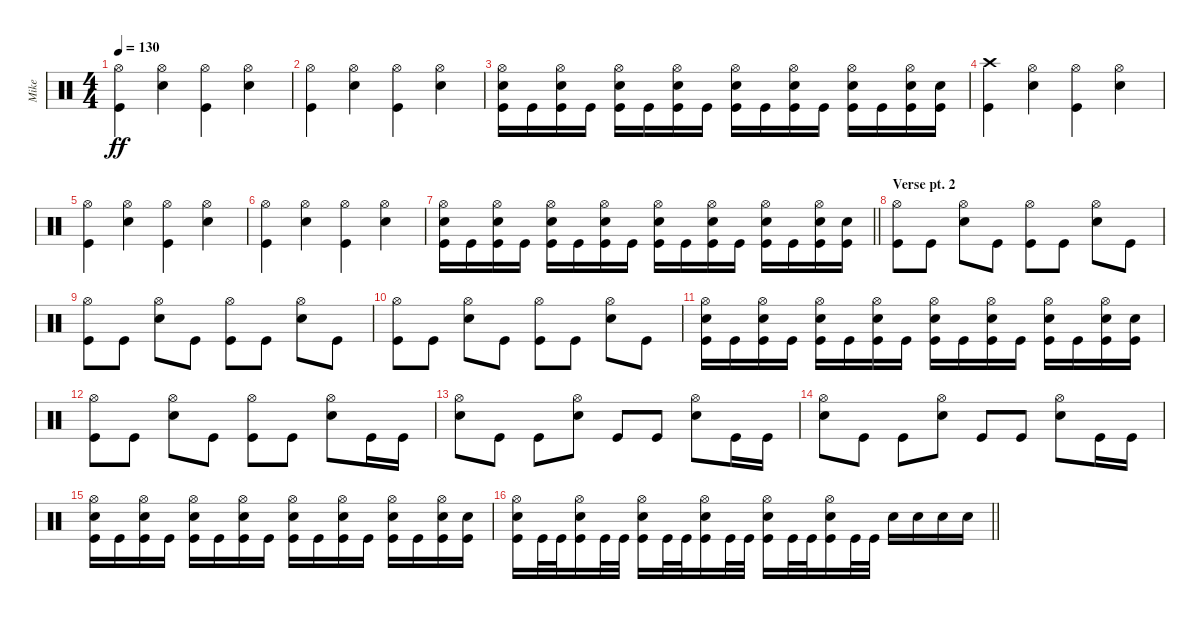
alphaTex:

\track ("Mike" "Mike") {instrument percussion}
\staff {score}
\articulation defaults
\ts (4 4)
\tempo 130
\clef neutral
\ks c
("Hi-Hat (open)" "Kick (hit)").4{dy ff} ("Snare (hit) 2" "Hi-Hat (open)").4 ("Kick (hit)" "Hi-Hat (open)").4 ("Hi-Hat (open)" "Snare (hit) 2").4 |
("Kick (hit)" "Hi-Hat (open)").4 ("Hi-Hat (open)" "Snare (hit) 2").4 ("Kick (hit)" "Hi-Hat (open)").4 ("Hi-Hat (open)" "Snare (hit) 2").4 |
("Hi-Hat (open)" "Snare (hit) 2" "Kick (hit)").16 "Kick (hit)".16 ("Hi-Hat (open)" "Snare (hit) 2" "Kick (hit)").16 "Kick (hit)".16 ("Hi-Hat (open)" "Snare (hit) 2" "Kick (hit)").16 "Kick (hit)".16 ("Hi-Hat (open)" "Snare (hit) 2" "Kick (hit)").16 "Kick (hit)".16 ("Hi-Hat (open)" "Snare (hit) 2" "Kick (hit)").16 "Kick (hit)".16 ("Hi-Hat (open)" "Snare (hit) 2" "Kick (hit)").16 "Kick (hit)".16 ("Hi-Hat (open)" "Snare (hit) 2" "Kick (hit)").16 "Kick (hit)".16 ("Hi-Hat (open)" "Snare (hit) 2" "Kick (hit)").16 ("Snare (hit) 2" "Kick (hit)").16 |
("Crash high (hit)" "Kick (hit)").4 ("Snare (hit) 2" "Hi-Hat (open)").4 ("Hi-Hat (open)" "Kick (hit)").4 ("Snare (hit) 2" "Hi-Hat (open)").4 |
("Hi-Hat (open)" "Kick (hit)").4 ("Snare (hit) 2" "Hi-Hat (open)").4 ("Kick (hit)" "Hi-Hat (open)").4 ("Hi-Hat (open)" "Snare (hit) 2").4 |
("Kick (hit)" "Hi-Hat (open)").4 ("Hi-Hat (open)" "Snare (hit) 2").4 ("Kick (hit)" "Hi-Hat (open)").4 ("Hi-Hat (open)" "Snare (hit) 2").4 |
\barLineRight lightlight
("Hi-Hat (open)" "Snare (hit) 2" "Kick (hit)").16 "Kick (hit)".16 ("Hi-Hat (open)" "Snare (hit) 2" "Kick (hit)").16 "Kick (hit)".16 ("Hi-Hat (open)" "Snare (hit) 2" "Kick (hit)").16 "Kick (hit)".16 ("Hi-Hat (open)" "Snare (hit) 2" "Kick (hit)").16 "Kick (hit)".16 ("Hi-Hat (open)" "Snare (hit) 2" "Kick (hit)").16 "Kick (hit)".16 ("Hi-Hat (open)" "Snare (hit) 2" "Kick (hit)").16 "Kick (hit)".16 ("Hi-Hat (open)" "Snare (hit) 2" "Kick (hit)").16 "Kick (hit)".16 ("Hi-Hat (open)" "Snare (hit) 2" "Kick (hit)").16 ("Snare (hit) 2" "Kick (hit)").16 |
\section ("" "Verse pt. 2")
("Hi-Hat (open)" "Kick (hit)").8 "Kick (hit)".8 ("Snare (hit) 2" "Hi-Hat (open)").8 "Kick (hit)".8 ("Kick (hit)" "Hi-Hat (open)").8 "Kick (hit)".8 ("Snare (hit) 2" "Hi-Hat (open)").8 "Kick (hit)".8 |
("Kick (hit)" "Hi-Hat (open)").8 "Kick (hit)".8 ("Snare (hit) 2" "Hi-Hat (open)").8 "Kick (hit)".8 ("Kick (hit)" "Hi-Hat (open)").8 "Kick (hit)".8 ("Snare (hit) 2" "Hi-Hat (open)").8 "Kick (hit)".8 |
("Hi-Hat (open)" "Kick (hit)").8 "Kick (hit)".8 ("Snare (hit) 2" "Hi-Hat (open)").8 "Kick (hit)".8 ("Kick (hit)" "Hi-Hat (open)").8 "Kick (hit)".8 ("Snare (hit) 2" "Hi-Hat (open)").8 "Kick (hit)".8 |
("Hi-Hat (open)" "Snare (hit) 2" "Kick (hit)").16 "Kick (hit)".16 ("Hi-Hat (open)" "Snare (hit) 2" "Kick (hit)").16 "Kick (hit)".16 ("Hi-Hat (open)" "Snare (hit) 2" "Kick (hit)").16 "Kick (hit)".16 ("Hi-Hat (open)" "Snare (hit) 2" "Kick (hit)").16 "Kick (hit)".16 ("Hi-Hat (open)" "Snare (hit) 2" "Kick (hit)").16 "Kick (hit)".16 ("Hi-Hat (open)" "Snare (hit) 2" "Kick (hit)").16 "Kick (hit)".16 ("Hi-Hat (open)" "Snare (hit) 2" "Kick (hit)").16 "Kick (hit)".16 ("Hi-Hat (open)" "Snare (hit) 2" "Kick (hit)").16 ("Snare (hit) 2" "Kick (hit)").16 |
("Hi-Hat (open)" "Kick (hit)").8 "Kick (hit)".8 ("Snare (hit) 2" "Hi-Hat (open)").8 "Kick (hit)".8 ("Kick (hit)" "Hi-Hat (open)").8 "Kick (hit)".8 ("Snare (hit) 2" "Hi-Hat (open)").8 "Kick (hit)".16 "Kick (hit)".16 |
("Hi-Hat (open)" "Snare (hit) 2").8 "Kick (hit)".8 "Kick (hit)".8 ("Hi-Hat (open)" "Snare (hit) 2").8 "Kick (hit)".8 "Kick (hit)".8 ("Snare (hit) 2" "Hi-Hat (open)").8 "Kick (hit)".16 "Kick (hit)".16 |
("Hi-Hat (open)" "Snare (hit) 2").8 "Kick (hit)".8 "Kick (hit)".8 ("Hi-Hat (open)" "Snare (hit) 2").8 "Kick (hit)".8 "Kick (hit)".8 ("Snare (hit) 2" "Hi-Hat (open)").8 "Kick (hit)".16 "Kick (hit)".16 |
("Hi-Hat (open)" "Snare (hit) 2" "Kick (hit)").16 "Kick (hit)".16 ("Hi-Hat (open)" "Snare (hit) 2" "Kick (hit)").16 "Kick (hit)".16 ("Hi-Hat (open)" "Snare (hit) 2" "Kick (hit)").16 "Kick (hit)".16 ("Hi-Hat (open)" "Snare (hit) 2" "Kick (hit)").16 "Kick (hit)".16 ("Hi-Hat (open)" "Snare (hit) 2" "Kick (hit)").16 "Kick (hit)".16 ("Hi-Hat (open)" "Snare (hit) 2" "Kick (hit)").16 "Kick (hit)".16 ("Hi-Hat (open)" "Snare (hit) 2" "Kick (hit)").16 "Kick (hit)".16 ("Hi-Hat (open)" "Snare (hit) 2" "Kick (hit)").16 ("Snare (hit) 2" "Kick (hit)").16 |
\barLineRight lightlight
("Hi-Hat (open)" "Snare (hit) 2" "Kick (hit)").16 "Kick (hit)".32 "Kick (hit)".32 ("Hi-Hat (open)" "Snare (hit) 2" "Kick (hit)").16 "Kick (hit)".32 "Kick (hit)".32 ("Hi-Hat (open)" "Snare (hit) 2" "Kick (hit)").16 "Kick (hit)".32 "Kick (hit)".32 ("Hi-Hat (open)" "Snare (hit) 2" "Kick (hit)").16 "Kick (hit)".32 "Kick (hit)".32 ("Hi-Hat (open)" "Snare (hit) 2" "Kick (hit)").16 "Kick (hit)".32 "Kick (hit)".32 ("Hi-Hat (open)" "Snare (hit) 2" "Kick (hit)").16 "Kick (hit)".32 "Kick (hit)".32 "Snare (hit) 2".16 "Snare (hit) 2".16 "Snare (hit) 2".16 "Snare (hit) 2".16
